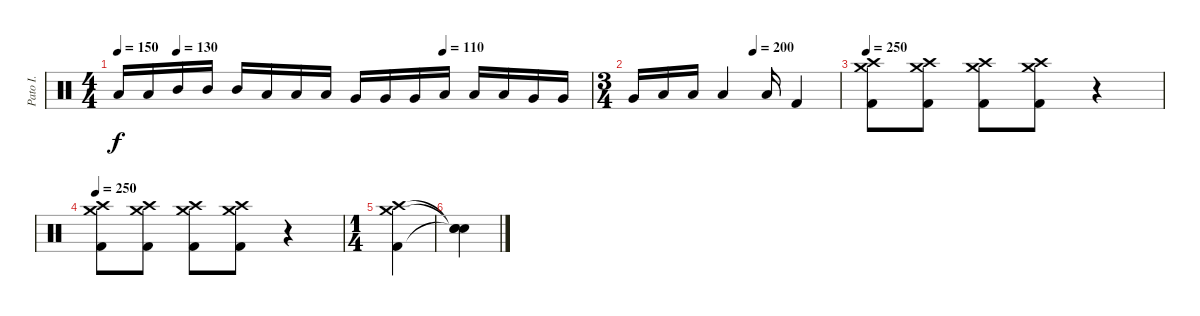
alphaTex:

\track ("Pato I." "Pato I.") {instrument percussion}
\staff {score}
\articulation defaults
\ts (4 4)
\tempo 150
\tempo (130 0.125)
\tempo (110 0.6875)
\clef neutral
\ks c "Low Tom (hit)".16{dy f} "Low Tom (hit)".16 "Mid Tom (hit)".16 "Mid Tom (hit)".16 "Mid Tom (hit)".16 "Low Tom (hit)".16 "Low Tom (hit)".16 "Low Tom (hit)".16 "Very Low Tom (hit)".16 "Very Low Tom (hit)".16 "Very Low Tom (hit)".16 "Low Tom (hit)".16 "Low Tom (hit)".16 "Low Tom (hit)".16 "Very Low Tom (hit)".16 "Very Low Tom (hit)".16
|
\ts (3 4)
\tempo (200 0.5833333333333334)
"Very Low Tom (hit)".16 "Low Floor Tom (hit)".16 "Low Floor Tom (hit)".16 "Low Floor Tom (hit)".4 "Low Tom (hit)".16 "Kick (hit) 2".4 |
\tempo 250
("Crash high (hit)" "Crash medium (hit)" "Kick (hit) 2").8 ("Crash high (hit)" "Crash medium (hit)" "Kick (hit) 2").8 ("Crash high (hit)" "Crash medium (hit)" "Kick (hit) 2").8 ("Crash high (hit)" "Crash medium (hit)" "Kick (hit) 2").8 r.4 |
\tempo 250
("Crash high (hit)" "Crash medium (hit)" "Kick (hit) 2").8 ("Crash high (hit)" "Crash medium (hit)" "Kick (hit) 2").8 ("Crash high (hit)" "Crash medium (hit)" "Kick (hit) 2").8 ("Crash high (hit)" "Crash medium (hit)" "Kick (hit) 2").8 r.4 |
\ts (1 4)
("Crash high (hit)" "Crash medium (hit)" "Kick (hit) 2").4 |
("Snare (hit)"{t} "Snare (hit)"{t} "Snare (hit)"{t}).4
